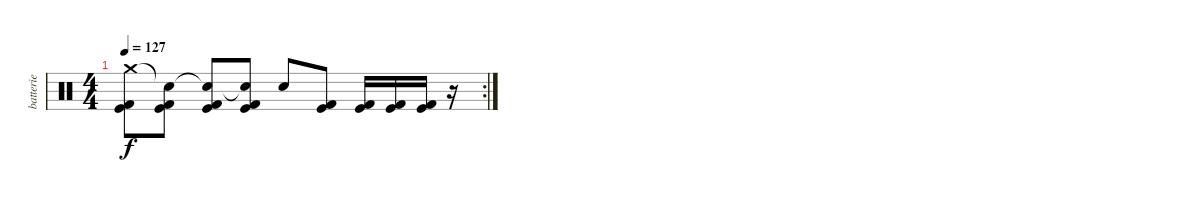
\track ("batterie" "batterie") {instrument percussion}
\staff {score}
\articulation defaults
\rc 2
\ts (4 4)
\tempo 127
\clef neutral
\ks c
("Crash medium (hit)" "Kick (hit) 2" "Kick (hit)").8{dy f} ("Snare (hit)"{t} "Kick (hit) 2" "Kick (hit)").8 ("Snare (hit)"{t} "Kick (hit) 2" "Kick (hit)").8 ("Snare (hit)"{t} "Kick (hit) 2" "Kick (hit)").8 "Electric Snare (hit)".8 ("Kick (hit) 2" "Kick (hit)").8 ("Kick (hit) 2" "Kick (hit)").16 ("Kick (hit) 2" "Kick (hit)").16 ("Kick (hit) 2" "Kick (hit)").16 r.16
